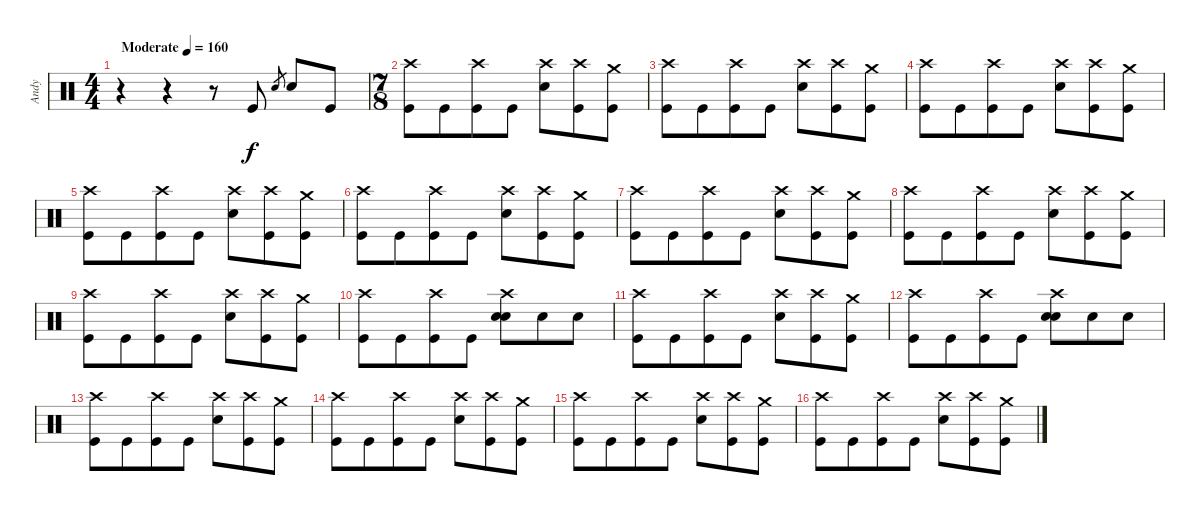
\track ("Andy" "Andy") {instrument percussion}
\staff {score}
\articulation defaults
\ts (4 4)
\tempo (160 "Moderate")
\clef neutral
\ks c
r.4{dy f} r.4 r.8 "Kick (hit)".8 "Snare (hit) 2".8{gr} "Snare (hit) 2".8 "Kick (hit)".8 |
\ts (7 8)
("Kick (hit)" "Crash high (hit)").8 "Kick (hit)".8 ("Kick (hit)" "Crash high (hit)").8 "Kick (hit)".8 ("Snare (hit) 2" "Crash high (hit)").8 ("Kick (hit)" "Crash high (hit)").8 ("Kick (hit)" "Crash medium (hit)").8 |
("Kick (hit)" "Crash high (hit)").8 "Kick (hit)".8 ("Kick (hit)" "Crash high (hit)").8 "Kick (hit)".8 ("Snare (hit) 2" "Crash high (hit)").8 ("Kick (hit)" "Crash high (hit)").8 ("Kick (hit)" "Crash medium (hit)").8 |
("Kick (hit)" "Crash high (hit)").8 "Kick (hit)".8 ("Kick (hit)" "Crash high (hit)").8 "Kick (hit)".8 ("Snare (hit) 2" "Crash high (hit)").8 ("Kick (hit)" "Crash high (hit)").8 ("Kick (hit)" "Crash medium (hit)").8 |
("Kick (hit)" "Crash high (hit)").8 "Kick (hit)".8 ("Kick (hit)" "Crash high (hit)").8 "Kick (hit)".8 ("Snare (hit) 2" "Crash high (hit)").8 ("Kick (hit)" "Crash high (hit)").8 ("Kick (hit)" "Crash medium (hit)").8 |
("Kick (hit)" "Crash high (hit)").8 "Kick (hit)".8 ("Kick (hit)" "Crash high (hit)").8 "Kick (hit)".8 ("Snare (hit) 2" "Crash high (hit)").8 ("Kick (hit)" "Crash high (hit)").8 ("Kick (hit)" "Crash medium (hit)").8 |
("Kick (hit)" "Crash high (hit)").8 "Kick (hit)".8 ("Kick (hit)" "Crash high (hit)").8 "Kick (hit)".8 ("Snare (hit) 2" "Crash high (hit)").8 ("Kick (hit)" "Crash high (hit)").8 ("Kick (hit)" "Crash medium (hit)").8 |
("Kick (hit)" "Crash high (hit)").8 "Kick (hit)".8 ("Kick (hit)" "Crash high (hit)").8 "Kick (hit)".8 ("Snare (hit) 2" "Crash high (hit)").8 ("Kick (hit)" "Crash high (hit)").8 ("Kick (hit)" "Crash medium (hit)").8 |
("Kick (hit)" "Crash high (hit)").8 "Kick (hit)".8 ("Kick (hit)" "Crash high (hit)").8 "Kick (hit)".8 ("Snare (hit) 2" "Crash high (hit)").8 ("Kick (hit)" "Crash high (hit)").8 ("Kick (hit)" "Crash medium (hit)").8 |
("Kick (hit)" "Crash high (hit)").8 "Kick (hit)".8 ("Kick (hit)" "Crash high (hit)").8 "Kick (hit)".8 ("Snare (hit) 2" "Electric Snare (hit)" "Crash high (hit)").8 "Electric Snare (hit)".8 "Electric Snare (hit)".8 |
("Kick (hit)" "Crash high (hit)").8 "Kick (hit)".8 ("Kick (hit)" "Crash high (hit)").8 "Kick (hit)".8 ("Snare (hit) 2" "Crash high (hit)").8 ("Kick (hit)" "Crash high (hit)").8 ("Kick (hit)" "Crash medium (hit)").8 |
("Kick (hit)" "Crash high (hit)").8 "Kick (hit)".8 ("Kick (hit)" "Crash high (hit)").8 "Kick (hit)".8 ("Snare (hit) 2" "Electric Snare (hit)" "Crash high (hit)").8 "Electric Snare (hit)".8 "Electric Snare (hit)".8 |
("Kick (hit)" "Crash high (hit)").8 "Kick (hit)".8 ("Kick (hit)" "Crash high (hit)").8 "Kick (hit)".8 ("Snare (hit) 2" "Crash high (hit)").8 ("Kick (hit)" "Crash high (hit)").8 ("Kick (hit)" "Crash medium (hit)").8 |
("Kick (hit)" "Crash high (hit)").8 "Kick (hit)".8 ("Kick (hit)" "Crash high (hit)").8 "Kick (hit)".8 ("Snare (hit) 2" "Crash high (hit)").8 ("Kick (hit)" "Crash high (hit)").8 ("Kick (hit)" "Crash medium (hit)").8 |
("Kick (hit)" "Crash high (hit)").8 "Kick (hit)".8 ("Kick (hit)" "Crash high (hit)").8 "Kick (hit)".8 ("Snare (hit) 2" "Crash high (hit)").8 ("Kick (hit)" "Crash high (hit)").8 ("Kick (hit)" "Crash medium (hit)").8 |
("Kick (hit)" "Crash high (hit)").8 "Kick (hit)".8 ("Kick (hit)" "Crash high (hit)").8 "Kick (hit)".8 ("Snare (hit) 2" "Crash high (hit)").8 ("Kick (hit)" "Crash high (hit)").8 ("Kick (hit)" "Crash medium (hit)").8
